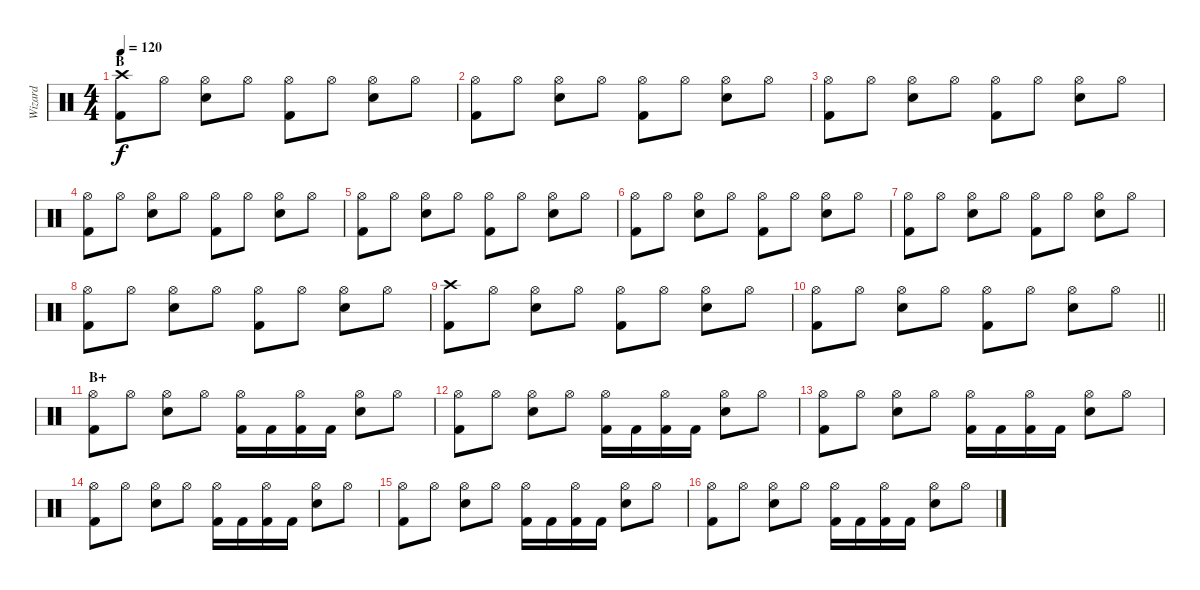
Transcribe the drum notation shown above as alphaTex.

\track ("Wizard" "Wizard") {instrument percussion}
\staff {score}
\articulation defaults
\ts (4 4)
\section ("" "B")
\tempo 120
\clef neutral
\ks c
("Crash high (hit)" "Kick (hit) 2").8{dy f} "Hi-Hat (open)".8 ("Hi-Hat (open)" "Snare (hit) 2").8 "Hi-Hat (open)".8 ("Hi-Hat (open)" "Kick (hit) 2").8 "Hi-Hat (open)".8 ("Hi-Hat (open)" "Snare (hit) 2").8 "Hi-Hat (open)".8 |
("Hi-Hat (open)" "Kick (hit) 2").8 "Hi-Hat (open)".8 ("Hi-Hat (open)" "Snare (hit) 2").8 "Hi-Hat (open)".8 ("Hi-Hat (open)" "Kick (hit) 2").8 "Hi-Hat (open)".8 ("Hi-Hat (open)" "Snare (hit) 2").8 "Hi-Hat (open)".8 |
("Hi-Hat (open)" "Kick (hit) 2").8 "Hi-Hat (open)".8 ("Hi-Hat (open)" "Snare (hit) 2").8 "Hi-Hat (open)".8 ("Hi-Hat (open)" "Kick (hit) 2").8 "Hi-Hat (open)".8 ("Hi-Hat (open)" "Snare (hit) 2").8 "Hi-Hat (open)".8 |
("Hi-Hat (open)" "Kick (hit) 2").8 "Hi-Hat (open)".8 ("Hi-Hat (open)" "Snare (hit) 2").8 "Hi-Hat (open)".8 ("Hi-Hat (open)" "Kick (hit) 2").8 "Hi-Hat (open)".8 ("Hi-Hat (open)" "Snare (hit) 2").8 "Hi-Hat (open)".8 |
("Hi-Hat (open)" "Kick (hit) 2").8 "Hi-Hat (open)".8 ("Hi-Hat (open)" "Snare (hit) 2").8 "Hi-Hat (open)".8 ("Hi-Hat (open)" "Kick (hit) 2").8 "Hi-Hat (open)".8 ("Hi-Hat (open)" "Snare (hit) 2").8 "Hi-Hat (open)".8 |
("Hi-Hat (open)" "Kick (hit) 2").8 "Hi-Hat (open)".8 ("Hi-Hat (open)" "Snare (hit) 2").8 "Hi-Hat (open)".8 ("Hi-Hat (open)" "Kick (hit) 2").8 "Hi-Hat (open)".8 ("Hi-Hat (open)" "Snare (hit) 2").8 "Hi-Hat (open)".8 |
("Hi-Hat (open)" "Kick (hit) 2").8 "Hi-Hat (open)".8 ("Hi-Hat (open)" "Snare (hit) 2").8 "Hi-Hat (open)".8 ("Hi-Hat (open)" "Kick (hit) 2").8 "Hi-Hat (open)".8 ("Hi-Hat (open)" "Snare (hit) 2").8 "Hi-Hat (open)".8 |
("Hi-Hat (open)" "Kick (hit) 2").8 "Hi-Hat (open)".8 ("Hi-Hat (open)" "Snare (hit) 2").8 "Hi-Hat (open)".8 ("Hi-Hat (open)" "Kick (hit) 2").8 "Hi-Hat (open)".8 ("Hi-Hat (open)" "Snare (hit) 2").8 "Hi-Hat (open)".8 |
("Crash high (hit)" "Kick (hit) 2").8 "Hi-Hat (open)".8 ("Hi-Hat (open)" "Snare (hit) 2").8 "Hi-Hat (open)".8 ("Hi-Hat (open)" "Kick (hit) 2").8 "Hi-Hat (open)".8 ("Hi-Hat (open)" "Snare (hit) 2").8 "Hi-Hat (open)".8 |
\barLineRight lightlight
("Hi-Hat (open)" "Kick (hit) 2").8 "Hi-Hat (open)".8 ("Hi-Hat (open)" "Snare (hit) 2").8 "Hi-Hat (open)".8 ("Hi-Hat (open)" "Kick (hit) 2").8 "Hi-Hat (open)".8 ("Hi-Hat (open)" "Snare (hit) 2").8 "Hi-Hat (open)".8 |
\section ("" "B+")
("Hi-Hat (open)" "Kick (hit) 2").8 "Hi-Hat (open)".8 ("Hi-Hat (open)" "Snare (hit) 2").8 "Hi-Hat (open)".8 ("Hi-Hat (open)" "Kick (hit) 2").16 "Kick (hit) 2".16 ("Hi-Hat (open)" "Kick (hit) 2").16 "Kick (hit) 2".16 ("Hi-Hat (open)" "Snare (hit) 2").8 "Hi-Hat (open)".8 |
("Hi-Hat (open)" "Kick (hit) 2").8 "Hi-Hat (open)".8 ("Hi-Hat (open)" "Snare (hit) 2").8 "Hi-Hat (open)".8 ("Hi-Hat (open)" "Kick (hit) 2").16 "Kick (hit) 2".16 ("Hi-Hat (open)" "Kick (hit) 2").16 "Kick (hit) 2".16 ("Hi-Hat (open)" "Snare (hit) 2").8 "Hi-Hat (open)".8 |
("Hi-Hat (open)" "Kick (hit) 2").8 "Hi-Hat (open)".8 ("Hi-Hat (open)" "Snare (hit) 2").8 "Hi-Hat (open)".8 ("Hi-Hat (open)" "Kick (hit) 2").16 "Kick (hit) 2".16 ("Hi-Hat (open)" "Kick (hit) 2").16 "Kick (hit) 2".16 ("Hi-Hat (open)" "Snare (hit) 2").8 "Hi-Hat (open)".8 |
("Hi-Hat (open)" "Kick (hit) 2").8 "Hi-Hat (open)".8 ("Hi-Hat (open)" "Snare (hit) 2").8 "Hi-Hat (open)".8 ("Hi-Hat (open)" "Kick (hit) 2").16 "Kick (hit) 2".16 ("Hi-Hat (open)" "Kick (hit) 2").16 "Kick (hit) 2".16 ("Hi-Hat (open)" "Snare (hit) 2").8 "Hi-Hat (open)".8 |
("Hi-Hat (open)" "Kick (hit) 2").8 "Hi-Hat (open)".8 ("Hi-Hat (open)" "Snare (hit) 2").8 "Hi-Hat (open)".8 ("Hi-Hat (open)" "Kick (hit) 2").16 "Kick (hit) 2".16 ("Hi-Hat (open)" "Kick (hit) 2").16 "Kick (hit) 2".16 ("Hi-Hat (open)" "Snare (hit) 2").8 "Hi-Hat (open)".8 |
("Hi-Hat (open)" "Kick (hit) 2").8 "Hi-Hat (open)".8 ("Hi-Hat (open)" "Snare (hit) 2").8 "Hi-Hat (open)".8 ("Hi-Hat (open)" "Kick (hit) 2").16 "Kick (hit) 2".16 ("Hi-Hat (open)" "Kick (hit) 2").16 "Kick (hit) 2".16 ("Hi-Hat (open)" "Snare (hit) 2").8 "Hi-Hat (open)".8
